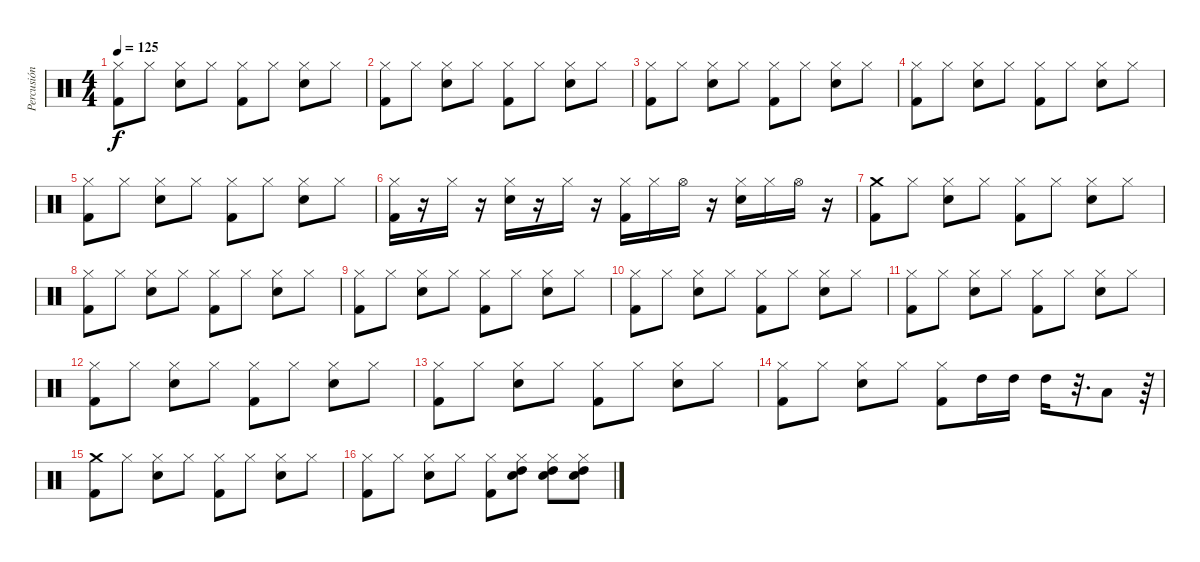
\track ("Percusión" "Percusión") {instrument percussion}
\staff {score}
\articulation defaults
\ts (4 4)
\tempo 125
\clef neutral
\ks c
("Hi-Hat (closed)" "Kick (hit) 2").8{dy f} "Hi-Hat (closed)".8 ("Hi-Hat (closed)" "Snare (hit) 2").8 "Hi-Hat (closed)".8 ("Hi-Hat (closed)" "Kick (hit) 2").8 "Hi-Hat (closed)".8 ("Hi-Hat (closed)" "Snare (hit) 2").8 "Hi-Hat (closed)".8 |
("Hi-Hat (closed)" "Kick (hit) 2").8 "Hi-Hat (closed)".8 ("Hi-Hat (closed)" "Snare (hit) 2").8 "Hi-Hat (closed)".8 ("Hi-Hat (closed)" "Kick (hit) 2").8 "Hi-Hat (closed)".8 ("Hi-Hat (closed)" "Snare (hit) 2").8 "Hi-Hat (closed)".8 |
("Hi-Hat (closed)" "Kick (hit) 2").8 "Hi-Hat (closed)".8 ("Hi-Hat (closed)" "Snare (hit) 2").8 "Hi-Hat (closed)".8 ("Hi-Hat (closed)" "Kick (hit) 2").8 "Hi-Hat (closed)".8 ("Hi-Hat (closed)" "Snare (hit) 2").8 "Hi-Hat (closed)".8 |
("Hi-Hat (closed)" "Kick (hit) 2").8 "Hi-Hat (closed)".8 ("Hi-Hat (closed)" "Snare (hit) 2").8 "Hi-Hat (closed)".8 ("Hi-Hat (closed)" "Kick (hit) 2").8 "Hi-Hat (closed)".8 ("Hi-Hat (closed)" "Snare (hit) 2").8 "Hi-Hat (closed)".8 |
("Hi-Hat (closed)" "Kick (hit) 2").8 "Hi-Hat (closed)".8 ("Hi-Hat (closed)" "Snare (hit) 2").8 "Hi-Hat (closed)".8 ("Hi-Hat (closed)" "Kick (hit) 2").8 "Hi-Hat (closed)".8 ("Hi-Hat (closed)" "Snare (hit) 2").8 "Hi-Hat (closed)".8 |
("Hi-Hat (closed)" "Kick (hit) 2").16 r.16 "Hi-Hat (closed)".16 r.16 ("Hi-Hat (closed)" "Snare (hit) 2").16 r.16 "Hi-Hat (closed)".16 r.16 ("Hi-Hat (closed)" "Kick (hit) 2").16 "Hi-Hat (closed)".16 "Hi-Hat (open)".16 r.16 ("Hi-Hat (closed)" "Snare (hit) 2").16 "Hi-Hat (closed)".16 "Hi-Hat (open)".16 r.16 |
("Crash medium (hit)" "Kick (hit) 2").8 "Hi-Hat (closed)".8 ("Hi-Hat (closed)" "Snare (hit) 2").8 "Hi-Hat (closed)".8 ("Hi-Hat (closed)" "Kick (hit) 2").8 "Hi-Hat (closed)".8 ("Hi-Hat (closed)" "Snare (hit) 2").8 "Hi-Hat (closed)".8 |
("Hi-Hat (closed)" "Kick (hit) 2").8 "Hi-Hat (closed)".8 ("Hi-Hat (closed)" "Snare (hit) 2").8 "Hi-Hat (closed)".8 ("Hi-Hat (closed)" "Kick (hit) 2").8 "Hi-Hat (closed)".8 ("Hi-Hat (closed)" "Snare (hit) 2").8 "Hi-Hat (closed)".8 |
("Hi-Hat (closed)" "Kick (hit) 2").8 "Hi-Hat (closed)".8 ("Hi-Hat (closed)" "Snare (hit) 2").8 "Hi-Hat (closed)".8 ("Hi-Hat (closed)" "Kick (hit) 2").8 "Hi-Hat (closed)".8 ("Hi-Hat (closed)" "Snare (hit) 2").8 "Hi-Hat (closed)".8 |
("Hi-Hat (closed)" "Kick (hit) 2").8 "Hi-Hat (closed)".8 ("Hi-Hat (closed)" "Snare (hit) 2").8 "Hi-Hat (closed)".8 ("Hi-Hat (closed)" "Kick (hit) 2").8 "Hi-Hat (closed)".8 ("Hi-Hat (closed)" "Snare (hit) 2").8 "Hi-Hat (closed)".8 |
("Hi-Hat (closed)" "Kick (hit) 2").8 "Hi-Hat (closed)".8 ("Hi-Hat (closed)" "Snare (hit) 2").8 "Hi-Hat (closed)".8 ("Hi-Hat (closed)" "Kick (hit) 2").8 "Hi-Hat (closed)".8 ("Hi-Hat (closed)" "Snare (hit) 2").8 "Hi-Hat (closed)".8 |
("Hi-Hat (closed)" "Kick (hit) 2").8 "Hi-Hat (closed)".8 ("Hi-Hat (closed)" "Snare (hit) 2").8 "Hi-Hat (closed)".8 ("Hi-Hat (closed)" "Kick (hit) 2").8 "Hi-Hat (closed)".8 ("Hi-Hat (closed)" "Snare (hit) 2").8 "Hi-Hat (closed)".8 |
("Hi-Hat (closed)" "Kick (hit) 2").8 "Hi-Hat (closed)".8 ("Hi-Hat (closed)" "Snare (hit) 2").8 "Hi-Hat (closed)".8 ("Hi-Hat (closed)" "Kick (hit) 2").8 "Hi-Hat (closed)".8 ("Hi-Hat (closed)" "Snare (hit) 2").8 "Hi-Hat (closed)".8 |
("Hi-Hat (closed)" "Kick (hit) 2").8 "Hi-Hat (closed)".8 ("Hi-Hat (closed)" "Snare (hit) 2").8 "Hi-Hat (closed)".8 ("Hi-Hat (closed)" "Kick (hit) 2").8 "High Tom (hit)".16 "High Tom (hit)".16 "High Tom (hit)".16 r.32{d} "Low Tom (hit)".8 r.64 |
("Crash medium (hit)" "Kick (hit) 2").8 "Hi-Hat (closed)".8 ("Hi-Hat (closed)" "Snare (hit) 2").8 "Hi-Hat (closed)".8 ("Hi-Hat (closed)" "Kick (hit) 2").8 "Hi-Hat (closed)".8 ("Hi-Hat (closed)" "Snare (hit) 2").8 "Hi-Hat (closed)".8 |
("Hi-Hat (closed)" "Kick (hit) 2").8 "Hi-Hat (closed)".8 ("Hi-Hat (closed)" "Snare (hit) 2").8 "Hi-Hat (closed)".8 ("Hi-Hat (closed)" "Kick (hit) 2").8 ("Hi-Hat (closed)" "Snare (hit) 2" "High Tom (hit)").8 ("Hi-Hat (closed)" "Snare (hit) 2" "High Tom (hit)").8 ("Hi-Hat (closed)" "Snare (hit) 2" "High Tom (hit)").8
